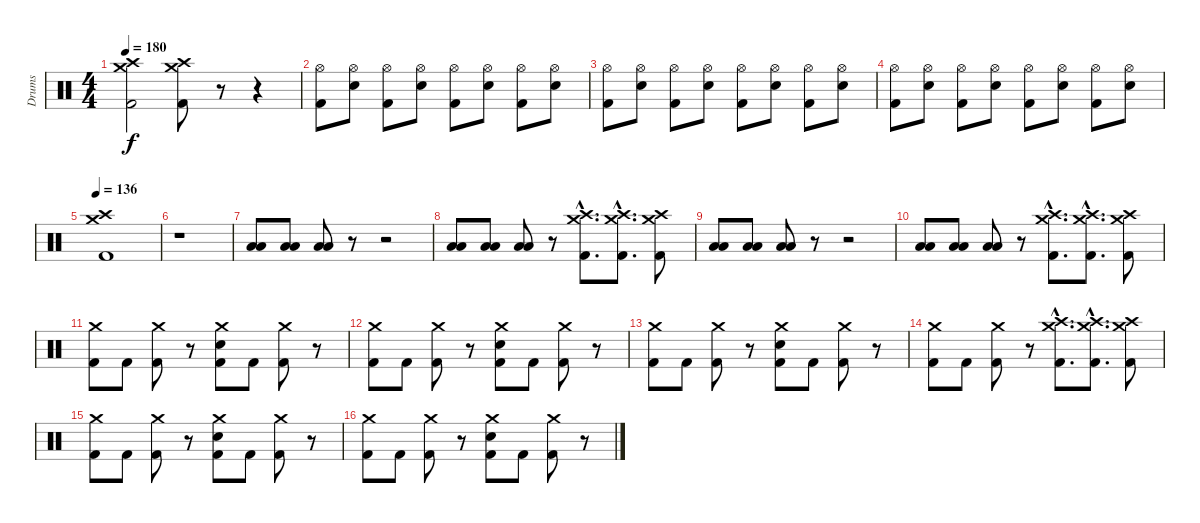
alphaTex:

\track ("Drums" "Drums") {instrument percussion}
\staff {score}
\articulation defaults
\ts (4 4)
\tempo 180
\clef neutral
\ks c
("Crash high (hit)" "Crash medium (hit)" "Kick (hit) 2").2{dy f} ("Crash high (hit)" "Crash medium (hit)" "Kick (hit) 2").8 r.8 r.4 |
("Hi-Hat (open)" "Kick (hit) 2").8 ("Hi-Hat (open)" "Snare (hit) 2").8 ("Hi-Hat (open)" "Kick (hit) 2").8 ("Hi-Hat (open)" "Snare (hit) 2").8 ("Hi-Hat (open)" "Kick (hit) 2").8 ("Hi-Hat (open)" "Snare (hit) 2").8 ("Hi-Hat (open)" "Kick (hit) 2").8 ("Hi-Hat (open)" "Snare (hit) 2").8 |
("Hi-Hat (open)" "Kick (hit) 2").8 ("Hi-Hat (open)" "Snare (hit) 2").8 ("Hi-Hat (open)" "Kick (hit) 2").8 ("Hi-Hat (open)" "Snare (hit) 2").8 ("Hi-Hat (open)" "Kick (hit) 2").8 ("Hi-Hat (open)" "Snare (hit) 2").8 ("Hi-Hat (open)" "Kick (hit) 2").8 ("Hi-Hat (open)" "Snare (hit) 2").8 |
("Hi-Hat (open)" "Kick (hit) 2").8 ("Hi-Hat (open)" "Snare (hit) 2").8 ("Hi-Hat (open)" "Kick (hit) 2").8 ("Hi-Hat (open)" "Snare (hit) 2").8 ("Hi-Hat (open)" "Kick (hit) 2").8 ("Hi-Hat (open)" "Snare (hit) 2").8 ("Hi-Hat (open)" "Kick (hit) 2").8 ("Hi-Hat (open)" "Snare (hit) 2").8 |
\tempo 136
("Crash high (hit)" "Crash medium (hit)" "Kick (hit) 2").1 |
r.1 |
("Low Tom (hit)" "Low Tom (hit)").8 ("Low Tom (hit)" "Low Tom (hit)").8 ("Low Tom (hit)" "Low Tom (hit)").8 r.8 r.2 |
("Low Tom (hit)" "Low Tom (hit)").8 ("Low Tom (hit)" "Low Tom (hit)").8 ("Low Tom (hit)" "Low Tom (hit)").8 r.8 ("Crash high (hit)"{hac} "Crash medium (hit)"{hac} "Kick (hit) 2"{hac}).8{d} ("Crash high (hit)"{hac} "Crash medium (hit)"{hac} "Kick (hit) 2"{hac}).8{d} ("Crash high (hit)" "Crash medium (hit)" "Kick (hit) 2").8 |
("Low Tom (hit)" "Low Tom (hit)").8 ("Low Tom (hit)" "Low Tom (hit)").8 ("Low Tom (hit)" "Low Tom (hit)").8 r.8 r.2 |
("Low Tom (hit)" "Low Tom (hit)").8 ("Low Tom (hit)" "Low Tom (hit)").8 ("Low Tom (hit)" "Low Tom (hit)").8 r.8 ("Crash high (hit)"{hac} "Crash medium (hit)"{hac} "Kick (hit) 2"{hac}).8{d} ("Crash high (hit)"{hac} "Crash medium (hit)"{hac} "Kick (hit) 2"{hac}).8{d} ("Crash high (hit)" "Crash medium (hit)" "Kick (hit) 2").8 |
("Crash medium (hit)" "Kick (hit) 2").8 "Kick (hit) 2".8 ("Crash medium (hit)" "Kick (hit) 2").8 r.8 ("Crash medium (hit)" "Snare (hit) 2" "Kick (hit) 2").8 "Kick (hit) 2".8 ("Crash medium (hit)" "Kick (hit) 2").8 r.8 |
("Crash medium (hit)" "Kick (hit) 2").8 "Kick (hit) 2".8 ("Crash medium (hit)" "Kick (hit) 2").8 r.8 ("Crash medium (hit)" "Snare (hit) 2" "Kick (hit) 2").8 "Kick (hit) 2".8 ("Crash medium (hit)" "Kick (hit) 2").8 r.8 |
("Crash medium (hit)" "Kick (hit) 2").8 "Kick (hit) 2".8 ("Crash medium (hit)" "Kick (hit) 2").8 r.8 ("Crash medium (hit)" "Snare (hit) 2" "Kick (hit) 2").8 "Kick (hit) 2".8 ("Crash medium (hit)" "Kick (hit) 2").8 r.8 |
("Crash medium (hit)" "Kick (hit) 2").8 "Kick (hit) 2".8 ("Crash medium (hit)" "Kick (hit) 2").8 r.8 ("Crash medium (hit)"{hac} "Crash high (hit)"{hac} "Kick (hit) 2"{hac}).8{d} ("Crash medium (hit)"{hac} "Crash high (hit)"{hac} "Kick (hit) 2"{hac}).8{d} ("Crash medium (hit)" "Crash high (hit)" "Kick (hit) 2").8 |
("Crash medium (hit)" "Kick (hit) 2").8 "Kick (hit) 2".8 ("Crash medium (hit)" "Kick (hit) 2").8 r.8 ("Crash medium (hit)" "Snare (hit) 2" "Kick (hit) 2").8 "Kick (hit) 2".8 ("Crash medium (hit)" "Kick (hit) 2").8 r.8 |
("Crash medium (hit)" "Kick (hit) 2").8 "Kick (hit) 2".8 ("Crash medium (hit)" "Kick (hit) 2").8 r.8 ("Crash medium (hit)" "Snare (hit) 2" "Kick (hit) 2").8 "Kick (hit) 2".8 ("Crash medium (hit)" "Kick (hit) 2").8 r.8
